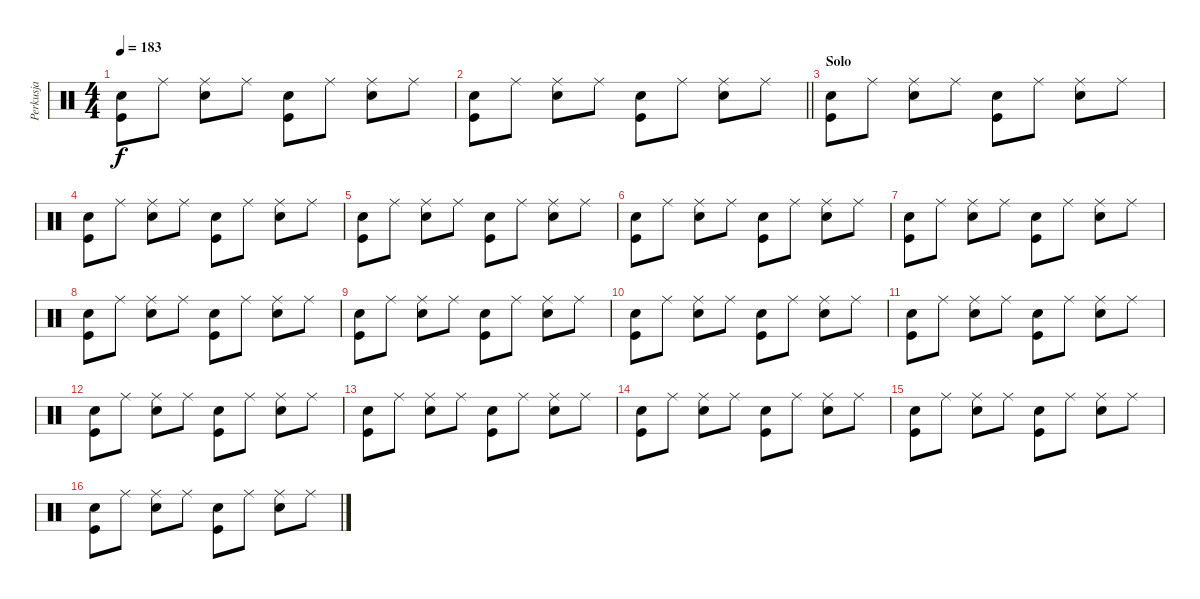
\track ("Perkusja" "Perkusja") {instrument percussion}
\staff {score}
\articulation defaults
\ts (4 4)
\tempo 183
\clef neutral
\ks c
("Kick (hit)" "Snare (hit) 2").8{dy f} "Ride (middle)".8 ("Ride (middle)" "Snare (hit) 2").8 "Ride (middle)".8 ("Kick (hit)" "Snare (hit) 2").8 "Ride (middle)".8 ("Ride (middle)" "Snare (hit) 2").8 "Ride (middle)".8 |
\barLineRight lightlight
("Kick (hit)" "Snare (hit) 2").8 "Ride (middle)".8 ("Ride (middle)" "Snare (hit) 2").8 "Ride (middle)".8 ("Kick (hit)" "Snare (hit) 2").8 "Ride (middle)".8 ("Ride (middle)" "Snare (hit) 2").8 "Ride (middle)".8 |
\section ("" "Solo")
("Kick (hit)" "Snare (hit) 2").8 "Ride (middle)".8 ("Ride (middle)" "Snare (hit) 2").8 "Ride (middle)".8 ("Kick (hit)" "Snare (hit) 2").8 "Ride (middle)".8 ("Ride (middle)" "Snare (hit) 2").8 "Ride (middle)".8 |
("Kick (hit)" "Snare (hit) 2").8 "Ride (middle)".8 ("Ride (middle)" "Snare (hit) 2").8 "Ride (middle)".8 ("Kick (hit)" "Snare (hit) 2").8 "Ride (middle)".8 ("Ride (middle)" "Snare (hit) 2").8 "Ride (middle)".8 |
("Kick (hit)" "Snare (hit) 2").8 "Ride (middle)".8 ("Ride (middle)" "Snare (hit) 2").8 "Ride (middle)".8 ("Kick (hit)" "Snare (hit) 2").8 "Ride (middle)".8 ("Ride (middle)" "Snare (hit) 2").8 "Ride (middle)".8 |
("Kick (hit)" "Snare (hit) 2").8 "Ride (middle)".8 ("Ride (middle)" "Snare (hit) 2").8 "Ride (middle)".8 ("Kick (hit)" "Snare (hit) 2").8 "Ride (middle)".8 ("Ride (middle)" "Snare (hit) 2").8 "Ride (middle)".8 |
("Kick (hit)" "Snare (hit) 2").8 "Ride (middle)".8 ("Ride (middle)" "Snare (hit) 2").8 "Ride (middle)".8 ("Kick (hit)" "Snare (hit) 2").8 "Ride (middle)".8 ("Ride (middle)" "Snare (hit) 2").8 "Ride (middle)".8 |
("Kick (hit)" "Snare (hit) 2").8 "Ride (middle)".8 ("Ride (middle)" "Snare (hit) 2").8 "Ride (middle)".8 ("Kick (hit)" "Snare (hit) 2").8 "Ride (middle)".8 ("Ride (middle)" "Snare (hit) 2").8 "Ride (middle)".8 |
("Kick (hit)" "Snare (hit) 2").8 "Ride (middle)".8 ("Ride (middle)" "Snare (hit) 2").8 "Ride (middle)".8 ("Kick (hit)" "Snare (hit) 2").8 "Ride (middle)".8 ("Ride (middle)" "Snare (hit) 2").8 "Ride (middle)".8 |
("Kick (hit)" "Snare (hit) 2").8 "Ride (middle)".8 ("Ride (middle)" "Snare (hit) 2").8 "Ride (middle)".8 ("Kick (hit)" "Snare (hit) 2").8 "Ride (middle)".8 ("Ride (middle)" "Snare (hit) 2").8 "Ride (middle)".8 |
("Kick (hit)" "Snare (hit) 2").8 "Ride (middle)".8 ("Ride (middle)" "Snare (hit) 2").8 "Ride (middle)".8 ("Kick (hit)" "Snare (hit) 2").8 "Ride (middle)".8 ("Ride (middle)" "Snare (hit) 2").8 "Ride (middle)".8 |
("Kick (hit)" "Snare (hit) 2").8 "Ride (middle)".8 ("Ride (middle)" "Snare (hit) 2").8 "Ride (middle)".8 ("Kick (hit)" "Snare (hit) 2").8 "Ride (middle)".8 ("Ride (middle)" "Snare (hit) 2").8 "Ride (middle)".8 |
("Kick (hit)" "Snare (hit) 2").8 "Ride (middle)".8 ("Ride (middle)" "Snare (hit) 2").8 "Ride (middle)".8 ("Kick (hit)" "Snare (hit) 2").8 "Ride (middle)".8 ("Ride (middle)" "Snare (hit) 2").8 "Ride (middle)".8 |
("Kick (hit)" "Snare (hit) 2").8 "Ride (middle)".8 ("Ride (middle)" "Snare (hit) 2").8 "Ride (middle)".8 ("Kick (hit)" "Snare (hit) 2").8 "Ride (middle)".8 ("Ride (middle)" "Snare (hit) 2").8 "Ride (middle)".8 |
("Kick (hit)" "Snare (hit) 2").8 "Ride (middle)".8 ("Ride (middle)" "Snare (hit) 2").8 "Ride (middle)".8 ("Kick (hit)" "Snare (hit) 2").8 "Ride (middle)".8 ("Ride (middle)" "Snare (hit) 2").8 "Ride (middle)".8 |
("Kick (hit)" "Snare (hit) 2").8 "Ride (middle)".8 ("Ride (middle)" "Snare (hit) 2").8 "Ride (middle)".8 ("Kick (hit)" "Snare (hit) 2").8 "Ride (middle)".8 ("Ride (middle)" "Snare (hit) 2").8 "Ride (middle)".8
